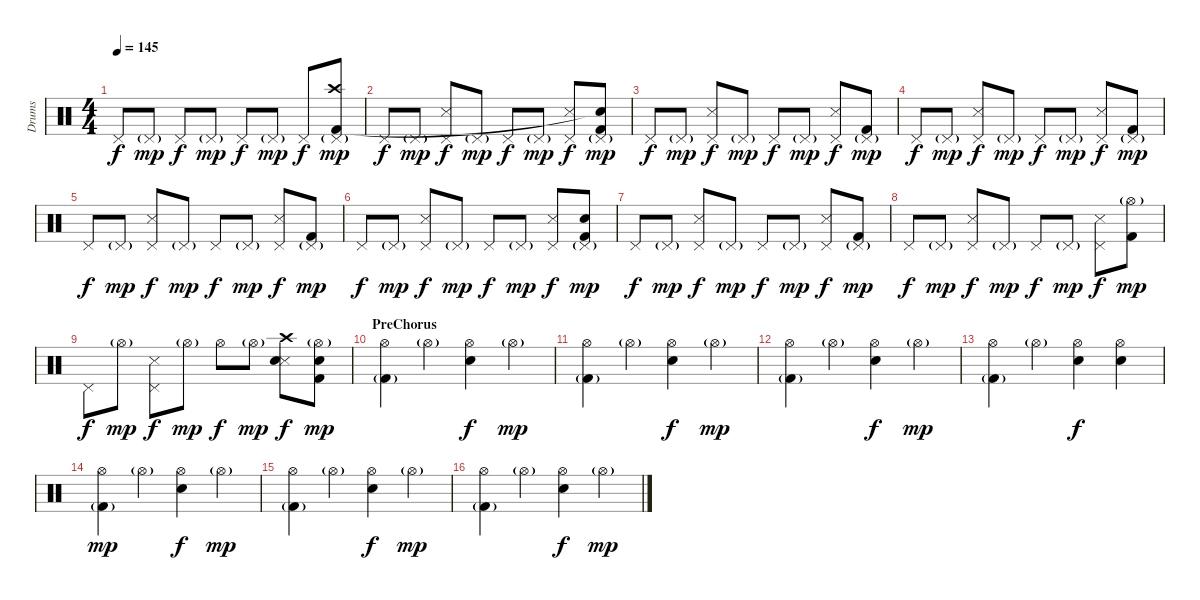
\track ("Drums" "Drums") {instrument percussion}
\staff {score}
\articulation defaults
\ts (4 4)
\tempo 145
\clef neutral
\ks c "Pedal Hi-Hat (hit)".8{dy f} "Pedal Hi-Hat (hit)"{g}.8{dy mp} "Pedal Hi-Hat (hit)".8{dy f} "Pedal Hi-Hat (hit)"{g}.8{dy mp} "Pedal Hi-Hat (hit)".8{dy f} "Pedal Hi-Hat (hit)"{g}.8{dy mp} "Pedal Hi-Hat (hit)".8{dy f}
("Pedal Hi-Hat (hit)"{g} "Crash high (hit)" "Kick (hit) 2").8{dy mp} |
"Pedal Hi-Hat (hit)".8{dy f} "Pedal Hi-Hat (hit)"{g}.8{dy mp} ("Pedal Hi-Hat (hit)" "Snare (side stick) 3").8{dy f} "Pedal Hi-Hat (hit)"{g}.8{dy mp} "Pedal Hi-Hat (hit)".8{dy f} "Pedal Hi-Hat (hit)"{g}.8{dy mp} ("Pedal Hi-Hat (hit)" "Snare (side stick) 3").8{dy f} ("Pedal Hi-Hat (hit)"{g} "Kick (hit) 2" "Snare (hit)"{t}).8{dy mp} |
"Pedal Hi-Hat (hit)".8{dy f} "Pedal Hi-Hat (hit)"{g}.8{dy mp} ("Pedal Hi-Hat (hit)" "Snare (side stick) 3").8{dy f} "Pedal Hi-Hat (hit)"{g}.8{dy mp} "Pedal Hi-Hat (hit)".8{dy f} "Pedal Hi-Hat (hit)"{g}.8{dy mp} ("Pedal Hi-Hat (hit)" "Snare (side stick) 3").8{dy f} ("Pedal Hi-Hat (hit)"{g} "Kick (hit) 2").8{dy mp} |
"Pedal Hi-Hat (hit)".8{dy f} "Pedal Hi-Hat (hit)"{g}.8{dy mp} ("Pedal Hi-Hat (hit)" "Snare (side stick) 3").8{dy f} "Pedal Hi-Hat (hit)"{g}.8{dy mp} "Pedal Hi-Hat (hit)".8{dy f} "Pedal Hi-Hat (hit)"{g}.8{dy mp} ("Pedal Hi-Hat (hit)" "Snare (side stick) 3").8{dy f} ("Pedal Hi-Hat (hit)"{g} "Kick (hit) 2").8{dy mp} |
"Pedal Hi-Hat (hit)".8{dy f} "Pedal Hi-Hat (hit)"{g}.8{dy mp} ("Pedal Hi-Hat (hit)" "Snare (side stick) 3").8{dy f} "Pedal Hi-Hat (hit)"{g}.8{dy mp} "Pedal Hi-Hat (hit)".8{dy f} "Pedal Hi-Hat (hit)"{g}.8{dy mp} ("Pedal Hi-Hat (hit)" "Snare (side stick) 3").8{dy f} ("Pedal Hi-Hat (hit)"{g} "Kick (hit) 2").8{dy mp} |
"Pedal Hi-Hat (hit)".8{dy f} "Pedal Hi-Hat (hit)"{g}.8{dy mp} ("Pedal Hi-Hat (hit)" "Snare (side stick) 3").8{dy f} "Pedal Hi-Hat (hit)"{g}.8{dy mp} "Pedal Hi-Hat (hit)".8{dy f} "Pedal Hi-Hat (hit)"{g}.8{dy mp} ("Pedal Hi-Hat (hit)" "Snare (side stick) 3").8{dy f} ("Pedal Hi-Hat (hit)"{g} "Kick (hit) 2" "Snare (hit)").8{dy mp} |
"Pedal Hi-Hat (hit)".8{dy f} "Pedal Hi-Hat (hit)"{g}.8{dy mp} ("Pedal Hi-Hat (hit)" "Snare (side stick) 3").8{dy f} "Pedal Hi-Hat (hit)"{g}.8{dy mp} "Pedal Hi-Hat (hit)".8{dy f} "Pedal Hi-Hat (hit)"{g}.8{dy mp} ("Pedal Hi-Hat (hit)" "Snare (side stick) 3").8{dy f} ("Pedal Hi-Hat (hit)"{g} "Kick (hit) 2").8{dy mp} |
"Pedal Hi-Hat (hit)".8{dy f} "Pedal Hi-Hat (hit)"{g}.8{dy mp} ("Pedal Hi-Hat (hit)" "Snare (side stick) 3").8{dy f} "Pedal Hi-Hat (hit)"{g}.8{dy mp} "Pedal Hi-Hat (hit)".8{dy f} "Pedal Hi-Hat (hit)"{g}.8{dy mp} ("Pedal Hi-Hat (hit)" "Snare (side stick) 3").8{dy f} ("Hi-Hat (open)"{g} "Kick (hit) 2").8{dy mp} |
"Pedal Hi-Hat (hit)".8{dy f} "Hi-Hat (open)"{g}.8{dy mp} ("Pedal Hi-Hat (hit)" "Snare (side stick) 3").8{dy f} "Hi-Hat (open)"{g}.8{dy mp} "Hi-Hat (open)".8{dy f} "Hi-Hat (open)"{g}.8{dy mp} ("Crash high (hit)" "Snare (side stick) 3" "Electric Snare (hit)").8{dy f} ("Hi-Hat (open)"{g} "Electric Snare (hit)" "Kick (hit) 2").8{dy mp} |
\section ("" "PreChorus")
("Hi-Hat (open)" "Kick (hit) 2"{g}).4 "Hi-Hat (open)"{g}.4 ("Hi-Hat (open)" "Electric Snare (hit)").4{dy f} "Hi-Hat (open)"{g}.4{dy mp} |
("Hi-Hat (open)" "Kick (hit) 2"{g}).4 "Hi-Hat (open)"{g}.4 ("Hi-Hat (open)" "Electric Snare (hit)").4{dy f} "Hi-Hat (open)"{g}.4{dy mp} |
("Hi-Hat (open)" "Kick (hit) 2"{g}).4 "Hi-Hat (open)"{g}.4 ("Hi-Hat (open)" "Electric Snare (hit)").4{dy f} "Hi-Hat (open)"{g}.4{dy mp} |
("Hi-Hat (open)" "Kick (hit) 2"{g}).4 "Hi-Hat (open)"{g}.4 ("Hi-Hat (open)" "Electric Snare (hit)").4{dy f} ("Hi-Hat (open)" "Electric Snare (hit)").4 |
("Hi-Hat (open)" "Kick (hit) 2"{g}).4{dy mp} "Hi-Hat (open)"{g}.4 ("Hi-Hat (open)" "Electric Snare (hit)").4{dy f} "Hi-Hat (open)"{g}.4{dy mp} |
("Hi-Hat (open)" "Kick (hit) 2"{g}).4 "Hi-Hat (open)"{g}.4 ("Hi-Hat (open)" "Electric Snare (hit)").4{dy f} "Hi-Hat (open)"{g}.4{dy mp} |
("Hi-Hat (open)" "Kick (hit) 2"{g}).4 "Hi-Hat (open)"{g}.4 ("Hi-Hat (open)" "Electric Snare (hit)").4{dy f} "Hi-Hat (open)"{g}.4{dy mp}
